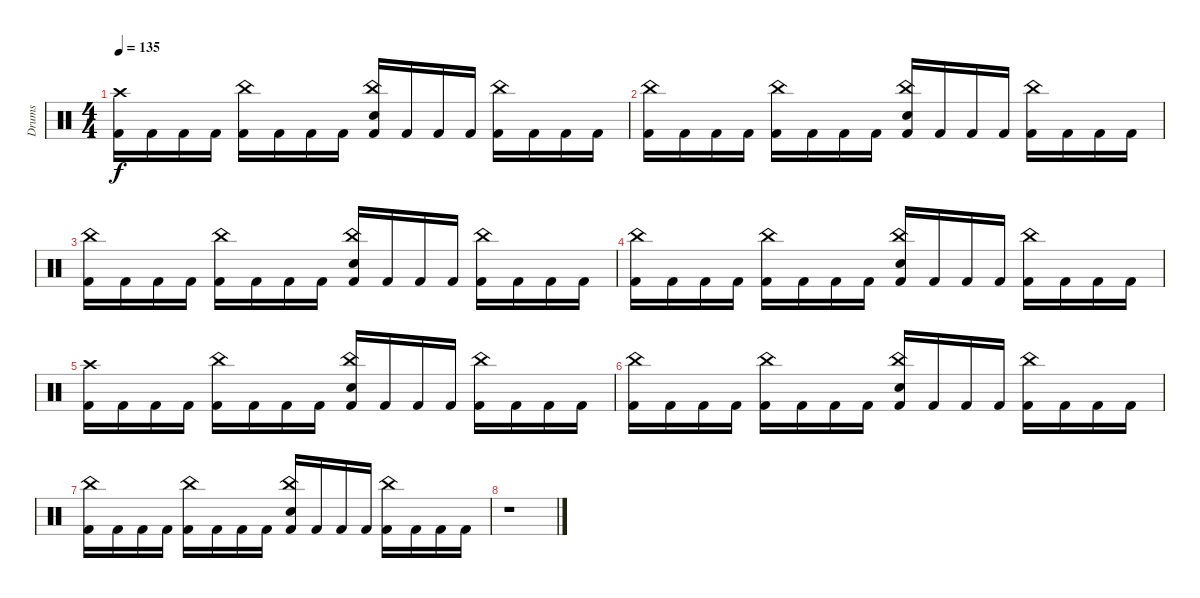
\track ("Drums" "Drums") {instrument percussion}
\staff {score}
\articulation defaults
\ts (4 4)
\tempo 135
\clef neutral
\ks c
("Crash high (hit)" "Kick (hit) 2").16{dy f} "Kick (hit) 2".16 "Kick (hit) 2".16 "Kick (hit) 2".16 ("China (hit)" "Kick (hit) 2").16 "Kick (hit) 2".16 "Kick (hit) 2".16 "Kick (hit) 2".16 ("China (hit)" "Electric Snare (hit)" "Kick (hit) 2").16 "Kick (hit) 2".16 "Kick (hit) 2".16 "Kick (hit) 2".16 ("China (hit)" "Kick (hit) 2").16 "Kick (hit) 2".16 "Kick (hit) 2".16 "Kick (hit) 2".16 |
("China (hit)" "Kick (hit) 2").16 "Kick (hit) 2".16 "Kick (hit) 2".16 "Kick (hit) 2".16 ("China (hit)" "Kick (hit) 2").16 "Kick (hit) 2".16 "Kick (hit) 2".16 "Kick (hit) 2".16 ("China (hit)" "Electric Snare (hit)" "Kick (hit) 2").16 "Kick (hit) 2".16 "Kick (hit) 2".16 "Kick (hit) 2".16 ("China (hit)" "Kick (hit) 2").16 "Kick (hit) 2".16 "Kick (hit) 2".16 "Kick (hit) 2".16 |
("China (hit)" "Kick (hit) 2").16 "Kick (hit) 2".16 "Kick (hit) 2".16 "Kick (hit) 2".16 ("China (hit)" "Kick (hit) 2").16 "Kick (hit) 2".16 "Kick (hit) 2".16 "Kick (hit) 2".16 ("China (hit)" "Electric Snare (hit)" "Kick (hit) 2").16 "Kick (hit) 2".16 "Kick (hit) 2".16 "Kick (hit) 2".16 ("China (hit)" "Kick (hit) 2").16 "Kick (hit) 2".16 "Kick (hit) 2".16 "Kick (hit) 2".16 |
("China (hit)" "Kick (hit) 2").16 "Kick (hit) 2".16 "Kick (hit) 2".16 "Kick (hit) 2".16 ("China (hit)" "Kick (hit) 2").16 "Kick (hit) 2".16 "Kick (hit) 2".16 "Kick (hit) 2".16 ("China (hit)" "Electric Snare (hit)" "Kick (hit) 2").16 "Kick (hit) 2".16 "Kick (hit) 2".16 "Kick (hit) 2".16 ("China (hit)" "Kick (hit) 2").16 "Kick (hit) 2".16 "Kick (hit) 2".16 "Kick (hit) 2".16 |
("Crash high (hit)" "Kick (hit) 2").16 "Kick (hit) 2".16 "Kick (hit) 2".16 "Kick (hit) 2".16 ("China (hit)" "Kick (hit) 2").16 "Kick (hit) 2".16 "Kick (hit) 2".16 "Kick (hit) 2".16 ("China (hit)" "Electric Snare (hit)" "Kick (hit) 2").16 "Kick (hit) 2".16 "Kick (hit) 2".16 "Kick (hit) 2".16 ("China (hit)" "Kick (hit) 2").16 "Kick (hit) 2".16 "Kick (hit) 2".16 "Kick (hit) 2".16 |
("China (hit)" "Kick (hit) 2").16 "Kick (hit) 2".16 "Kick (hit) 2".16 "Kick (hit) 2".16 ("China (hit)" "Kick (hit) 2").16 "Kick (hit) 2".16 "Kick (hit) 2".16 "Kick (hit) 2".16 ("China (hit)" "Electric Snare (hit)" "Kick (hit) 2").16 "Kick (hit) 2".16 "Kick (hit) 2".16 "Kick (hit) 2".16 ("China (hit)" "Kick (hit) 2").16 "Kick (hit) 2".16 "Kick (hit) 2".16 "Kick (hit) 2".16 |
("China (hit)" "Kick (hit) 2").16 "Kick (hit) 2".16 "Kick (hit) 2".16 "Kick (hit) 2".16 ("China (hit)" "Kick (hit) 2").16 "Kick (hit) 2".16 "Kick (hit) 2".16 "Kick (hit) 2".16 ("China (hit)" "Electric Snare (hit)" "Kick (hit) 2").16 "Kick (hit) 2".16 "Kick (hit) 2".16 "Kick (hit) 2".16 ("China (hit)" "Kick (hit) 2").16 "Kick (hit) 2".16 "Kick (hit) 2".16 "Kick (hit) 2".16 |
r.1
